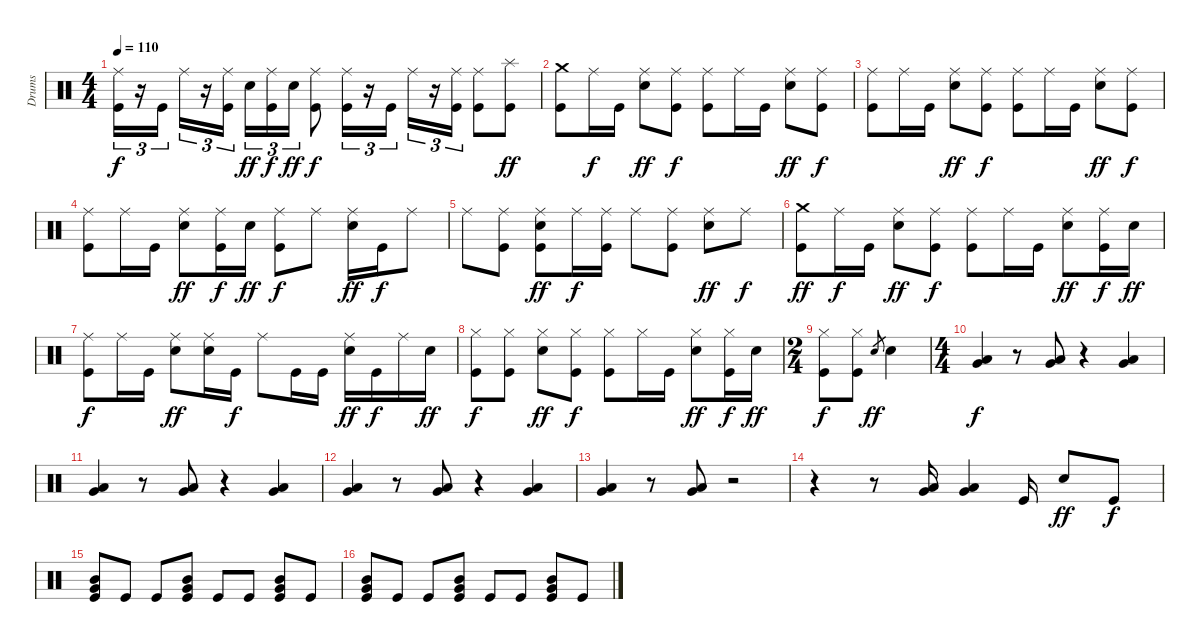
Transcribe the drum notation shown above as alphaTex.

\track ("Drums" "Drums") {instrument percussion}
\staff {score}
\articulation defaults
\ts (4 4)
\tempo 110
\clef neutral
\ks c
("Kick (hit)" "Ride (middle)").16{tu (3 2) dy f} r.16{tu (3 2)} "Kick (hit)".16{tu (3 2)} "Ride (middle)".16{tu (3 2)} r.16{tu (3 2)} ("Kick (hit)" "Ride (middle)").16{tu (3 2)} "Electric Snare (hit)".16{tu (3 2) dy ff} ("Kick (hit)" "Ride (middle)").16{tu (3 2) dy f} "Electric Snare (hit)".16{tu (3 2) dy ff} ("Kick (hit)" "Ride (middle)").8{dy f} ("Kick (hit)" "Ride (middle)").16{tu (3 2)} r.16{tu (3 2)} "Kick (hit)".16{tu (3 2)} "Ride (middle)".16{tu (3 2)} r.16{tu (3 2)} ("Kick (hit)" "Ride (middle)").16{tu (3 2)} ("Kick (hit)" "Ride (middle)").8 ("Kick (hit)" "Splash (hit)").8{dy ff} |
("Kick (hit)" "Crash medium (hit)").8 "Ride (middle)".16{dy f} "Kick (hit)".16 ("Electric Snare (hit)" "Ride (middle)").8{dy ff} ("Kick (hit)" "Ride (middle)").8{dy f} ("Kick (hit)" "Ride (middle)").8 "Ride (middle)".16 "Kick (hit)".16 ("Electric Snare (hit)" "Ride (middle)").8{dy ff} ("Kick (hit)" "Ride (middle)").8{dy f} |
("Kick (hit)" "Ride (middle)").8 "Ride (middle)".16 "Kick (hit)".16 ("Electric Snare (hit)" "Ride (middle)").8{dy ff} ("Kick (hit)" "Ride (middle)").8{dy f} ("Kick (hit)" "Ride (middle)").8 "Ride (middle)".16 "Kick (hit)".16 ("Electric Snare (hit)" "Ride (middle)").8{dy ff} ("Kick (hit)" "Ride (middle)").8{dy f} |
("Kick (hit)" "Ride (middle)").8 "Ride (middle)".16 "Kick (hit)".16 ("Electric Snare (hit)" "Ride (middle)").8{dy ff} ("Kick (hit)" "Ride (middle)").16{dy f} "Electric Snare (hit)".16{dy ff} ("Kick (hit)" "Ride (middle)").8{dy f} "Ride (middle)".8 ("Electric Snare (hit)" "Ride (middle)").16{dy ff} "Kick (hit)".16{dy f} "Ride (middle)".8 |
"Ride (middle)".8 ("Kick (hit)" "Ride (middle)").8 ("Kick (hit)" "Electric Snare (hit)" "Ride (middle)").8{dy ff} "Ride (middle)".16{dy f} ("Kick (hit)" "Ride (middle)").16 "Ride (middle)".8 ("Kick (hit)" "Ride (middle)").8 ("Electric Snare (hit)" "Ride (middle)").8{dy ff} "Ride (middle)".8{dy f} |
("Kick (hit)" "Crash medium (hit)").8{dy ff} "Ride (middle)".16{dy f} "Kick (hit)".16 ("Electric Snare (hit)" "Ride (middle)").8{dy ff} ("Kick (hit)" "Ride (middle)").8{dy f} ("Kick (hit)" "Ride (middle)").8 "Ride (middle)".16 "Kick (hit)".16 ("Electric Snare (hit)" "Ride (middle)").8{dy ff} ("Kick (hit)" "Ride (middle)").16{dy f} "Electric Snare (hit)".16{dy ff} |
("Kick (hit)" "Ride (middle)").8{dy f} "Ride (middle)".16 "Kick (hit)".16 ("Electric Snare (hit)" "Ride (middle)").8{dy ff} ("Electric Snare (hit)" "Ride (middle)").16 "Kick (hit)".16{dy f} "Ride (middle)".8 "Kick (hit)".16 "Kick (hit)".16 ("Electric Snare (hit)" "Ride (middle)").16{dy ff} "Kick (hit)".16{dy f} "Ride (middle)".16 "Electric Snare (hit)".16{dy ff} |
("Kick (hit)" "Hi-Hat (closed)").8{dy f} ("Kick (hit)" "Hi-Hat (closed)").8 ("Electric Snare (hit)" "Hi-Hat (closed)").8{dy ff} ("Kick (hit)" "Hi-Hat (closed)").8{dy f} ("Kick (hit)" "Hi-Hat (closed)").8 "Hi-Hat (closed)".16 "Kick (hit)".16 ("Electric Snare (hit)" "Hi-Hat (closed)").8{dy ff} ("Kick (hit)" "Hi-Hat (closed)").16{dy f} "Electric Snare (hit)".16{dy ff} |
\ts (2 4)
("Kick (hit)" "Hi-Hat (closed)").8{dy f} ("Kick (hit)" "Hi-Hat (closed)").8 "Electric Snare (hit)".8{gr dy ff} "Electric Snare (hit)".4 |
\ts (4 4)
("Low Tom (hit)" "Very Low Tom (hit)").4{dy f} r.8 ("Low Tom (hit)" "Very Low Tom (hit)").8 r.4 ("Low Tom (hit)" "Very Low Tom (hit)").4 |
("Low Tom (hit)" "Very Low Tom (hit)").4 r.8 ("Low Tom (hit)" "Very Low Tom (hit)").8 r.4 ("Low Tom (hit)" "Very Low Tom (hit)").4 |
("Low Tom (hit)" "Very Low Tom (hit)").4 r.8 ("Low Tom (hit)" "Very Low Tom (hit)").8 r.4 ("Low Tom (hit)" "Very Low Tom (hit)").4 |
("Low Tom (hit)" "Very Low Tom (hit)").4 r.8 ("Low Tom (hit)" "Very Low Tom (hit)").8 r.2 |
r.4 r.8 ("Low Tom (hit)" "Very Low Tom (hit)").16 ("Low Tom (hit)" "Very Low Tom (hit)").4 "Kick (hit)".16 "Electric Snare (hit)".8{dy ff} "Kick (hit)".8{dy f} |
("Kick (hit)" "Mid Tom (hit)" "Very Low Tom (hit)").8 "Kick (hit)".8 "Kick (hit)".8 ("Kick (hit)" "Mid Tom (hit)" "Very Low Tom (hit)").8 "Kick (hit)".8 "Kick (hit)".8 ("Kick (hit)" "Mid Tom (hit)" "Very Low Tom (hit)").8 "Kick (hit)".8 |
("Kick (hit)" "Mid Tom (hit)" "Very Low Tom (hit)").8 "Kick (hit)".8 "Kick (hit)".8 ("Kick (hit)" "Mid Tom (hit)" "Very Low Tom (hit)").8 "Kick (hit)".8 "Kick (hit)".8 ("Kick (hit)" "Mid Tom (hit)" "Very Low Tom (hit)").8 "Kick (hit)".8
